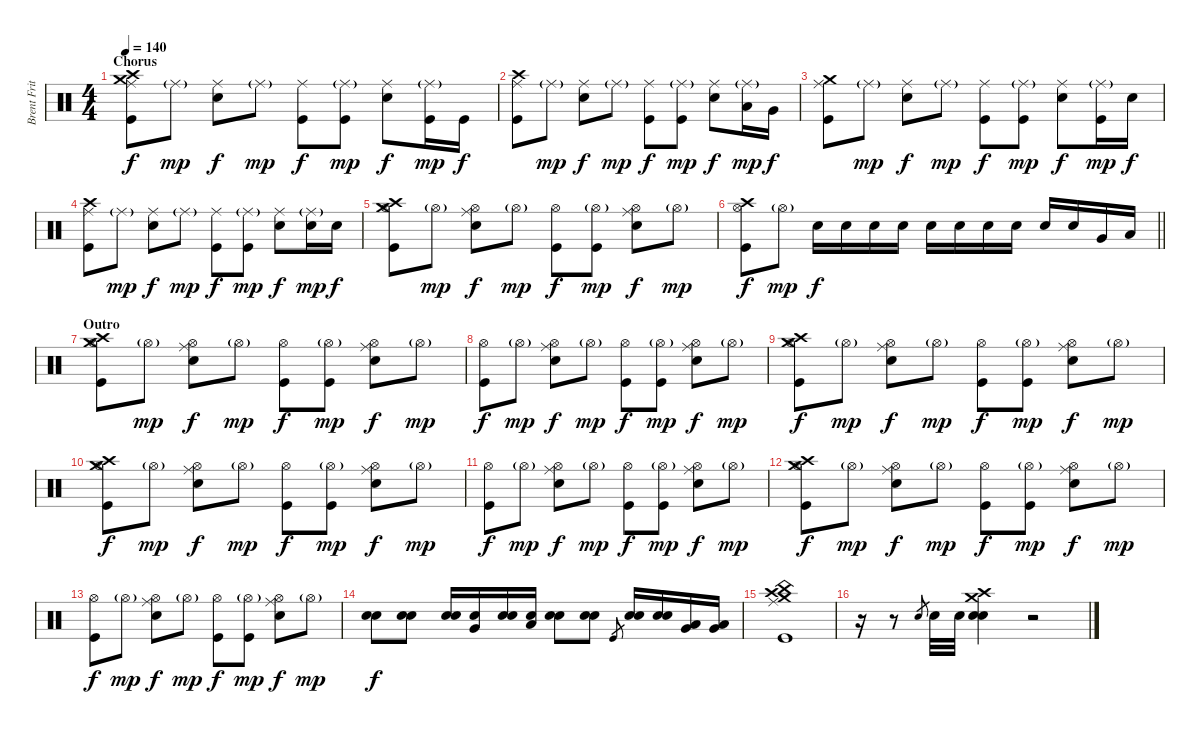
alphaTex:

\track ("Brent Fritz" "Brent Frit") {instrument percussion}
\staff {score}
\articulation defaults
\ts (4 4)
\section ("" "Chorus")
\tempo 140
\clef neutral
\ks c
("Crash medium (hit)" "Crash high (hit)" "Ride (middle)" "Kick (hit)").8{dy f} "Ride (middle)"{g}.8{dy mp} ("Ride (middle)" "Electric Snare (hit)").8{dy f} "Ride (middle)"{g}.8{dy mp} ("Ride (middle)" "Kick (hit)").8{dy f} ("Ride (middle)"{g} "Kick (hit)").8{dy mp} ("Ride (middle)" "Electric Snare (hit)").8{dy f} ("Ride (middle)"{g} "Kick (hit)").16{dy mp} "Kick (hit)".16{dy f} |
("Crash high (hit)" "Ride (middle)" "Kick (hit)").8 "Ride (middle)"{g}.8{dy mp} ("Ride (middle)" "Electric Snare (hit)").8{dy f} "Ride (middle)"{g}.8{dy mp} ("Ride (middle)" "Kick (hit)").8{dy f} ("Ride (middle)"{g} "Kick (hit)").8{dy mp} ("Ride (middle)" "Electric Snare (hit)").8{dy f} ("Ride (middle)"{g} "Low Tom (hit)").16{dy mp} "Very Low Tom (hit)".16{dy f} |
("Crash medium (hit)" "Ride (middle)" "Kick (hit)").8 "Ride (middle)"{g}.8{dy mp} ("Ride (middle)" "Electric Snare (hit)").8{dy f} "Ride (middle)"{g}.8{dy mp} ("Ride (middle)" "Kick (hit)").8{dy f} ("Ride (middle)"{g} "Kick (hit)").8{dy mp} ("Ride (middle)" "Electric Snare (hit)").8{dy f} ("Ride (middle)"{g} "Kick (hit)").16{dy mp} "Electric Snare (hit)".16{dy f} |
("Crash high (hit)" "Ride (middle)" "Kick (hit)").8 "Ride (middle)"{g}.8{dy mp} ("Ride (middle)" "Electric Snare (hit)").8{dy f} "Ride (middle)"{g}.8{dy mp} ("Ride (middle)" "Kick (hit)").8{dy f} ("Ride (middle)"{g} "Kick (hit)").8{dy mp} ("Ride (middle)" "Electric Snare (hit)").8{dy f} ("Ride (middle)"{g} "Electric Snare (hit)").16{dy mp} "Electric Snare (hit)".16{dy f} |
("Crash medium (hit)" "Crash high (hit)" "Hi-Hat (open)" "Kick (hit)").8 "Hi-Hat (open)"{g}.8{dy mp} ("Hi-Hat (open)" "Ride (middle)" "Electric Snare (hit)").8{dy f} "Hi-Hat (open)"{g}.8{dy mp} ("Hi-Hat (open)" "Kick (hit)").8{dy f} ("Hi-Hat (open)"{g} "Kick (hit)").8{dy mp} ("Hi-Hat (open)" "Ride (middle)" "Electric Snare (hit)").8{dy f} "Hi-Hat (open)"{g}.8{dy mp} |
\barLineRight lightlight
("Crash high (hit)" "Hi-Hat (open)" "Kick (hit)").8{dy f} "Hi-Hat (open)"{g}.8{dy mp} "Electric Snare (hit)".16{dy f} "Electric Snare (hit)".16 "Electric Snare (hit)".16 "Electric Snare (hit)".16 "Electric Snare (hit)".16 "Electric Snare (hit)".16 "Electric Snare (hit)".16 "Electric Snare (hit)".16 "Electric Snare (hit)".16 "Electric Snare (hit)".16 "Very Low Tom (hit)".16 "Low Floor Tom (hit)".16 |
\section ("" "Outro")
("Crash medium (hit)" "Crash high (hit)" "Hi-Hat (open)" "Kick (hit)").8 "Hi-Hat (open)"{g}.8{dy mp} ("Hi-Hat (open)" "Ride (middle)" "Electric Snare (hit)").8{dy f} "Hi-Hat (open)"{g}.8{dy mp} ("Hi-Hat (open)" "Kick (hit)").8{dy f} ("Hi-Hat (open)"{g} "Kick (hit)").8{dy mp} ("Hi-Hat (open)" "Ride (middle)" "Electric Snare (hit)").8{dy f} "Hi-Hat (open)"{g}.8{dy mp} |
("Hi-Hat (open)" "Kick (hit)").8{dy f} "Hi-Hat (open)"{g}.8{dy mp} ("Hi-Hat (open)" "Ride (middle)" "Electric Snare (hit)").8{dy f} "Hi-Hat (open)"{g}.8{dy mp} ("Hi-Hat (open)" "Kick (hit)").8{dy f} ("Hi-Hat (open)"{g} "Kick (hit)").8{dy mp} ("Hi-Hat (open)" "Ride (middle)" "Electric Snare (hit)").8{dy f} "Hi-Hat (open)"{g}.8{dy mp} |
("Crash medium (hit)" "Crash high (hit)" "Hi-Hat (open)" "Kick (hit)").8{dy f} "Hi-Hat (open)"{g}.8{dy mp} ("Hi-Hat (open)" "Ride (middle)" "Electric Snare (hit)").8{dy f} "Hi-Hat (open)"{g}.8{dy mp} ("Hi-Hat (open)" "Kick (hit)").8{dy f} ("Hi-Hat (open)"{g} "Kick (hit)").8{dy mp} ("Hi-Hat (open)" "Ride (middle)" "Electric Snare (hit)").8{dy f} "Hi-Hat (open)"{g}.8{dy mp} |
("Crash medium (hit)" "Crash high (hit)" "Hi-Hat (open)" "Kick (hit)").8{dy f} "Hi-Hat (open)"{g}.8{dy mp} ("Hi-Hat (open)" "Ride (middle)" "Electric Snare (hit)").8{dy f} "Hi-Hat (open)"{g}.8{dy mp} ("Hi-Hat (open)" "Kick (hit)").8{dy f} ("Hi-Hat (open)"{g} "Kick (hit)").8{dy mp} ("Hi-Hat (open)" "Ride (middle)" "Electric Snare (hit)").8{dy f} "Hi-Hat (open)"{g}.8{dy mp} |
("Hi-Hat (open)" "Kick (hit)").8{dy f} "Hi-Hat (open)"{g}.8{dy mp} ("Hi-Hat (open)" "Ride (middle)" "Electric Snare (hit)").8{dy f} "Hi-Hat (open)"{g}.8{dy mp} ("Hi-Hat (open)" "Kick (hit)").8{dy f} ("Hi-Hat (open)"{g} "Kick (hit)").8{dy mp} ("Hi-Hat (open)" "Ride (middle)" "Electric Snare (hit)").8{dy f} "Hi-Hat (open)"{g}.8{dy mp} |
("Crash medium (hit)" "Crash high (hit)" "Hi-Hat (open)" "Kick (hit)").8{dy f} "Hi-Hat (open)"{g}.8{dy mp} ("Hi-Hat (open)" "Ride (middle)" "Electric Snare (hit)").8{dy f} "Hi-Hat (open)"{g}.8{dy mp} ("Hi-Hat (open)" "Kick (hit)").8{dy f} ("Hi-Hat (open)"{g} "Kick (hit)").8{dy mp} ("Hi-Hat (open)" "Ride (middle)" "Electric Snare (hit)").8{dy f} "Hi-Hat (open)"{g}.8{dy mp} |
("Hi-Hat (open)" "Kick (hit)").8{dy f} "Hi-Hat (open)"{g}.8{dy mp} ("Hi-Hat (open)" "Ride (middle)" "Electric Snare (hit)").8{dy f} "Hi-Hat (open)"{g}.8{dy mp} ("Hi-Hat (open)" "Kick (hit)").8{dy f} ("Hi-Hat (open)"{g} "Kick (hit)").8{dy mp} ("Hi-Hat (open)" "Ride (middle)" "Electric Snare (hit)").8{dy f} "Hi-Hat (open)"{g}.8{dy mp} |
("Electric Snare (hit)" "Electric Snare (hit)").8{dy f} ("Electric Snare (hit)" "Electric Snare (hit)").8 ("Electric Snare (hit)" "Electric Snare (hit)").16 ("Very Low Tom (hit)" "Electric Snare (hit)").16 ("Electric Snare (hit)" "Electric Snare (hit)").16 ("Low Floor Tom (hit)" "Electric Snare (hit)").16 ("Electric Snare (hit)" "Electric Snare (hit)").8 ("Electric Snare (hit)" "Electric Snare (hit)").8 "Kick (hit)".8{gr} ("Electric Snare (hit)" "Electric Snare (hit)").16 ("Electric Snare (hit)" "Electric Snare (hit)").16 ("Low Tom (hit)" "Very Low Tom (hit)").16 ("Very Low Tom (hit)" "Low Floor Tom (hit)").16 |
("Crash medium (hit)" "Crash high (hit)" "Ride (middle)" "China (hit)" "Kick (hit)").1 |
r.16 r.8 "Electric Snare (hit)".8{gr} "Electric Snare (hit)".32 "Electric Snare (hit)".32 ("Crash high (hit)" "Crash medium (hit)" "Electric Snare (hit)" "Electric Snare (hit)").4 r.2
